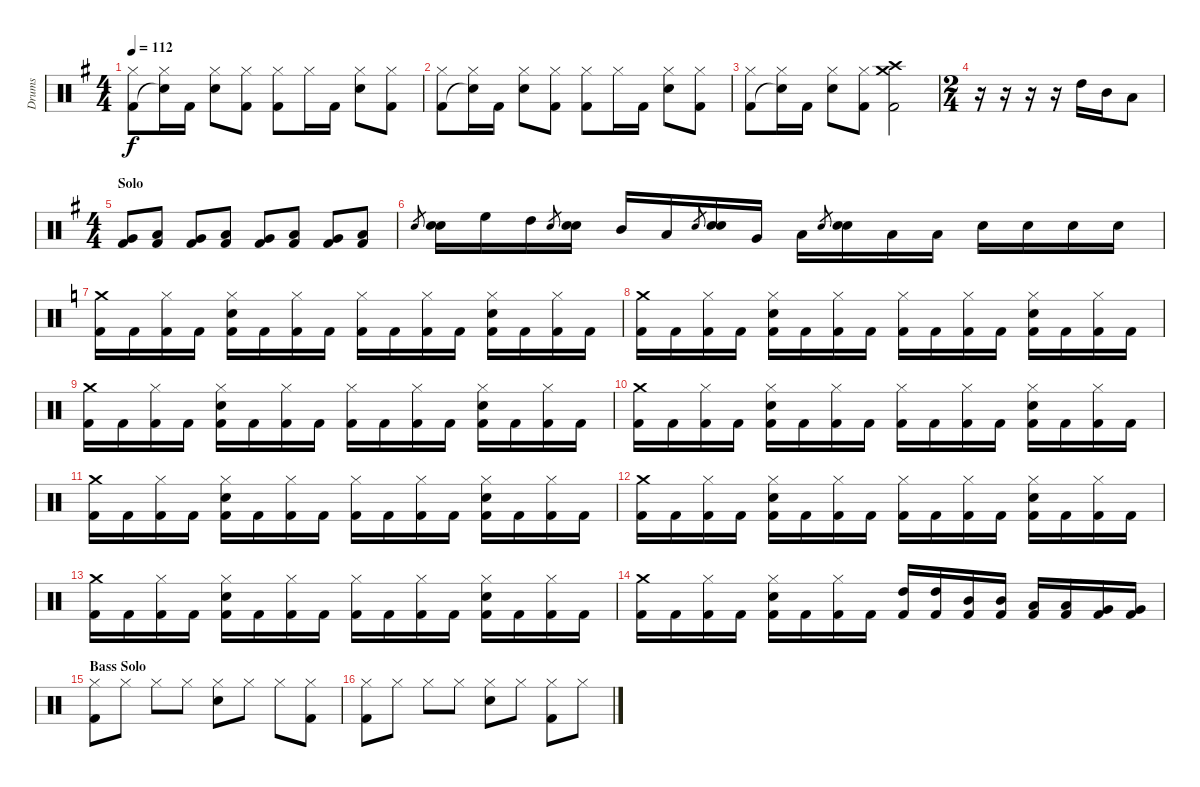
\track ("Drums" "Drums") {instrument percussion}
\staff {score}
\articulation defaults
\ts (4 4)
\tempo 112
\clef neutral
\ks g
("Kick (hit) 2" "Hi-Hat (closed)").8{dy f} ("Snare (hit)"{t} "Hi-Hat (closed)").16 "Kick (hit) 2".16 ("Snare (hit) 2" "Hi-Hat (closed)").8 ("Kick (hit) 2" "Hi-Hat (closed)").8 ("Kick (hit) 2" "Hi-Hat (closed)").8 "Hi-Hat (closed)".16 "Kick (hit) 2".16 ("Snare (hit) 2" "Hi-Hat (closed)").8 ("Kick (hit) 2" "Hi-Hat (closed)").8 |
("Kick (hit) 2" "Hi-Hat (closed)").8 ("Snare (hit)"{t} "Hi-Hat (closed)").16 "Kick (hit) 2".16 ("Snare (hit) 2" "Hi-Hat (closed)").8 ("Kick (hit) 2" "Hi-Hat (closed)").8 ("Kick (hit) 2" "Hi-Hat (closed)").8 "Hi-Hat (closed)".16 "Kick (hit) 2".16 ("Snare (hit) 2" "Hi-Hat (closed)").8 ("Kick (hit) 2" "Hi-Hat (closed)").8 |
("Kick (hit) 2" "Hi-Hat (closed)").8 ("Snare (hit)"{t} "Hi-Hat (closed)").16 "Kick (hit) 2".16 ("Snare (hit) 2" "Hi-Hat (closed)").8 ("Kick (hit) 2" "Hi-Hat (closed)").8 ("Kick (hit) 2" "Crash medium (hit)" "Crash high (hit)").2 |
\ts (2 4)
r.16 r.16 r.16 r.16 "High Tom (hit)".16 "Mid Tom (hit)".16 "Low Tom (hit)".8 |
\ts (4 4)
\section ("" "Solo")
("Kick (hit) 2" "Very Low Tom (hit)").8 ("Kick (hit) 2" "Low Floor Tom (hit)").8 ("Kick (hit) 2" "Very Low Tom (hit)").8 ("Kick (hit) 2" "Low Floor Tom (hit)").8 ("Kick (hit) 2" "Very Low Tom (hit)").8 ("Kick (hit) 2" "Low Floor Tom (hit)").8 ("Kick (hit) 2" "Very Low Tom (hit)").8 ("Kick (hit) 2" "Low Floor Tom (hit)").8 |
"Snare (hit) 2".8{gr} ("Snare (hit) 2" "Snare (hit) 2").16 "High Floor Tom (hit)".16 "High Tom (hit)".16 "Snare (hit) 2".8{gr} ("Snare (hit) 2" "Snare (hit) 2").16 "Mid Tom (hit)".16 "Low Tom (hit)".16 "Snare (hit) 2".8{gr} ("Snare (hit) 2" "Snare (hit) 2").16 "Very Low Tom (hit)".16 "Low Floor Tom (hit)".16 "Snare (hit) 2".8{gr} ("Snare (hit) 2" "Snare (hit) 2").16 "Low Floor Tom (hit)".16 "Low Floor Tom (hit)".16 "Snare (hit) 2".16 "Snare (hit) 2".16 "Snare (hit) 2".16 "Snare (hit) 2".16 |
\ks c
("Kick (hit) 2" "Crash medium (hit)").16 "Kick (hit) 2".16 ("Kick (hit) 2" "Hi-Hat (closed)").16 "Kick (hit) 2".16 ("Kick (hit) 2" "Hi-Hat (closed)" "Snare (hit) 2").16 "Kick (hit) 2".16 ("Kick (hit) 2" "Hi-Hat (closed)").16 "Kick (hit) 2".16 ("Kick (hit) 2" "Hi-Hat (closed)").16 "Kick (hit) 2".16 ("Kick (hit) 2" "Hi-Hat (closed)").16 "Kick (hit) 2".16 ("Kick (hit) 2" "Hi-Hat (closed)" "Snare (hit) 2").16 "Kick (hit) 2".16 ("Kick (hit) 2" "Hi-Hat (closed)").16 "Kick (hit) 2".16 |
("Kick (hit) 2" "Crash medium (hit)").16 "Kick (hit) 2".16 ("Kick (hit) 2" "Hi-Hat (closed)").16 "Kick (hit) 2".16 ("Kick (hit) 2" "Hi-Hat (closed)" "Snare (hit) 2").16 "Kick (hit) 2".16 ("Kick (hit) 2" "Hi-Hat (closed)").16 "Kick (hit) 2".16 ("Kick (hit) 2" "Hi-Hat (closed)").16 "Kick (hit) 2".16 ("Kick (hit) 2" "Hi-Hat (closed)").16 "Kick (hit) 2".16 ("Kick (hit) 2" "Hi-Hat (closed)" "Snare (hit) 2").16 "Kick (hit) 2".16 ("Kick (hit) 2" "Hi-Hat (closed)").16 "Kick (hit) 2".16 |
("Kick (hit) 2" "Crash medium (hit)").16 "Kick (hit) 2".16 ("Kick (hit) 2" "Hi-Hat (closed)").16 "Kick (hit) 2".16 ("Kick (hit) 2" "Hi-Hat (closed)" "Snare (hit) 2").16 "Kick (hit) 2".16 ("Kick (hit) 2" "Hi-Hat (closed)").16 "Kick (hit) 2".16 ("Kick (hit) 2" "Hi-Hat (closed)").16 "Kick (hit) 2".16 ("Kick (hit) 2" "Hi-Hat (closed)").16 "Kick (hit) 2".16 ("Kick (hit) 2" "Hi-Hat (closed)" "Snare (hit) 2").16 "Kick (hit) 2".16 ("Kick (hit) 2" "Hi-Hat (closed)").16 "Kick (hit) 2".16 |
("Kick (hit) 2" "Crash medium (hit)").16 "Kick (hit) 2".16 ("Kick (hit) 2" "Hi-Hat (closed)").16 "Kick (hit) 2".16 ("Kick (hit) 2" "Hi-Hat (closed)" "Snare (hit) 2").16 "Kick (hit) 2".16 ("Kick (hit) 2" "Hi-Hat (closed)").16 "Kick (hit) 2".16 ("Kick (hit) 2" "Hi-Hat (closed)").16 "Kick (hit) 2".16 ("Kick (hit) 2" "Hi-Hat (closed)").16 "Kick (hit) 2".16 ("Kick (hit) 2" "Hi-Hat (closed)" "Snare (hit) 2").16 "Kick (hit) 2".16 ("Kick (hit) 2" "Hi-Hat (closed)").16 "Kick (hit) 2".16 |
("Kick (hit) 2" "Crash medium (hit)").16 "Kick (hit) 2".16 ("Kick (hit) 2" "Hi-Hat (closed)").16 "Kick (hit) 2".16 ("Kick (hit) 2" "Hi-Hat (closed)" "Snare (hit) 2").16 "Kick (hit) 2".16 ("Kick (hit) 2" "Hi-Hat (closed)").16 "Kick (hit) 2".16 ("Kick (hit) 2" "Hi-Hat (closed)").16 "Kick (hit) 2".16 ("Kick (hit) 2" "Hi-Hat (closed)").16 "Kick (hit) 2".16 ("Kick (hit) 2" "Hi-Hat (closed)" "Snare (hit) 2").16 "Kick (hit) 2".16 ("Kick (hit) 2" "Hi-Hat (closed)").16 "Kick (hit) 2".16 |
("Kick (hit) 2" "Crash medium (hit)").16 "Kick (hit) 2".16 ("Kick (hit) 2" "Hi-Hat (closed)").16 "Kick (hit) 2".16 ("Kick (hit) 2" "Hi-Hat (closed)" "Snare (hit) 2").16 "Kick (hit) 2".16 ("Kick (hit) 2" "Hi-Hat (closed)").16 "Kick (hit) 2".16 ("Kick (hit) 2" "Hi-Hat (closed)").16 "Kick (hit) 2".16 ("Kick (hit) 2" "Hi-Hat (closed)").16 "Kick (hit) 2".16 ("Kick (hit) 2" "Hi-Hat (closed)" "Snare (hit) 2").16 "Kick (hit) 2".16 ("Kick (hit) 2" "Hi-Hat (closed)").16 "Kick (hit) 2".16 |
("Kick (hit) 2" "Crash medium (hit)").16 "Kick (hit) 2".16 ("Kick (hit) 2" "Hi-Hat (closed)").16 "Kick (hit) 2".16 ("Kick (hit) 2" "Hi-Hat (closed)" "Snare (hit) 2").16 "Kick (hit) 2".16 ("Kick (hit) 2" "Hi-Hat (closed)").16 "Kick (hit) 2".16 ("Kick (hit) 2" "Hi-Hat (closed)").16 "Kick (hit) 2".16 ("Kick (hit) 2" "Hi-Hat (closed)").16 "Kick (hit) 2".16 ("Kick (hit) 2" "Hi-Hat (closed)" "Snare (hit) 2").16 "Kick (hit) 2".16 ("Kick (hit) 2" "Hi-Hat (closed)").16 "Kick (hit) 2".16 |
("Kick (hit) 2" "Crash medium (hit)").16 "Kick (hit) 2".16 ("Kick (hit) 2" "Hi-Hat (closed)").16 "Kick (hit) 2".16 ("Kick (hit) 2" "Hi-Hat (closed)" "Snare (hit) 2").16 "Kick (hit) 2".16 ("Kick (hit) 2" "Hi-Hat (closed)").16 "Kick (hit) 2".16 ("Kick (hit) 2" "High Tom (hit)").16 ("Kick (hit) 2" "High Tom (hit)").16 ("Kick (hit) 2" "Mid Tom (hit)").16 ("Kick (hit) 2" "Mid Tom (hit)").16 ("Kick (hit) 2" "Low Tom (hit)").16 ("Kick (hit) 2" "Low Tom (hit)").16 ("Kick (hit) 2" "Very Low Tom (hit)").16 ("Kick (hit) 2" "Very Low Tom (hit)").16 |
\section ("" "Bass Solo")
("Kick (hit) 2" "Hi-Hat (closed)").8 "Hi-Hat (closed)".8 "Hi-Hat (closed)".8 "Hi-Hat (closed)".8 ("Snare (hit) 2" "Hi-Hat (closed)").8 "Hi-Hat (closed)".8 "Hi-Hat (closed)".8 ("Kick (hit) 2" "Hi-Hat (closed)").8 |
("Kick (hit) 2" "Hi-Hat (closed)").8 "Hi-Hat (closed)".8 "Hi-Hat (closed)".8 "Hi-Hat (closed)".8 ("Snare (hit) 2" "Hi-Hat (closed)").8 "Hi-Hat (closed)".8 ("Kick (hit) 2" "Hi-Hat (closed)").8 "Hi-Hat (closed)".8
